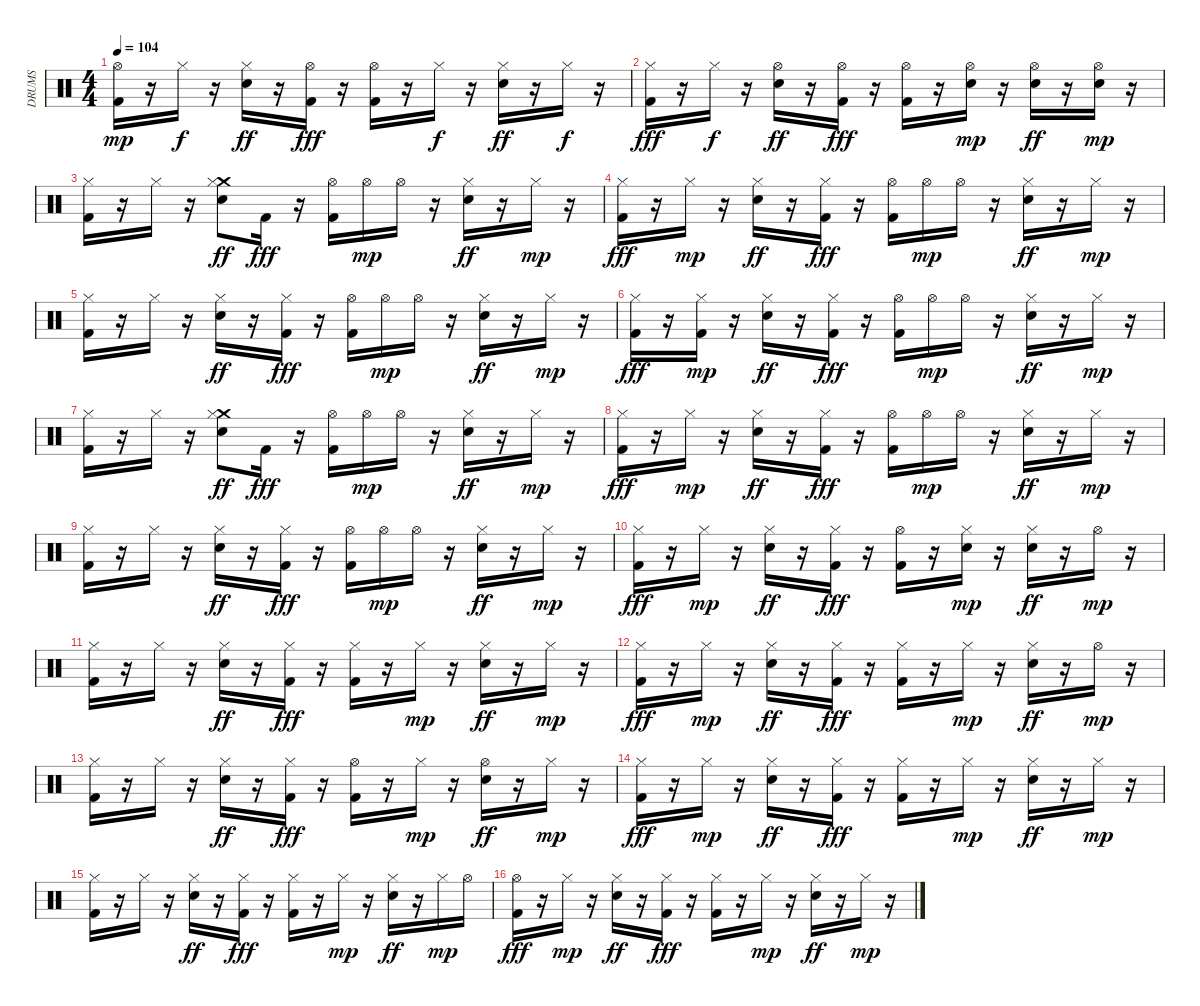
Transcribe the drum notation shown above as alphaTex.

\track ("DRUMS" "DRUMS") {instrument percussion}
\staff {score}
\articulation defaults
\ts (4 4)
\tempo 104
\clef neutral
\ks c
("Kick (hit) 2" "Hi-Hat (open)").16{dy mp} r.16 "Hi-Hat (closed)".16{dy f} r.16 ("Hi-Hat (closed)" "Snare (hit) 2").16{dy ff} r.16 ("Hi-Hat (open)" "Kick (hit) 2").16{dy fff} r.16 ("Hi-Hat (open)" "Kick (hit) 2").16 r.16 "Hi-Hat (closed)".16{dy f} r.16 ("Hi-Hat (closed)" "Snare (hit) 2").16{dy ff} r.16 "Hi-Hat (closed)".16{dy f} r.16 |
("Hi-Hat (closed)" "Kick (hit) 2").16{dy fff} r.16 "Hi-Hat (closed)".16{dy f} r.16 ("Hi-Hat (open)" "Snare (hit) 2").16{dy ff} r.16 ("Hi-Hat (open)" "Kick (hit) 2").16{dy fff} r.16 ("Hi-Hat (open)" "Kick (hit) 2").16 r.16 ("Snare (hit) 2" "Hi-Hat (open)").16{dy mp} r.16 ("Hi-Hat (open)" "Snare (hit) 2").16{dy ff} r.16 ("Snare (hit) 2" "Hi-Hat (open)").16{dy mp} r.16 |
("Kick (hit) 2" "Hi-Hat (closed)").16 r.16 "Hi-Hat (closed)".16 r.16 ("Crash medium (hit)" "Hi-Hat (closed)" "Snare (hit) 2").8{dy ff} "Kick (hit) 2".16{dy fff} r.16 ("Hi-Hat (open)" "Kick (hit) 2").16 "Hi-Hat (open)".16{dy mp} "Hi-Hat (open)".16 r.16 ("Hi-Hat (closed)" "Snare (hit) 2").16{dy ff} r.16 "Hi-Hat (closed)".16{dy mp} r.16 |
("Hi-Hat (closed)" "Kick (hit) 2").16{dy fff} r.16 "Hi-Hat (closed)".16{dy mp} r.16 ("Hi-Hat (closed)" "Snare (hit) 2").16{dy ff} r.16 ("Hi-Hat (closed)" "Kick (hit) 2").16{dy fff} r.16 ("Hi-Hat (open)" "Kick (hit) 2").16 "Hi-Hat (open)".16{dy mp} "Hi-Hat (open)".16 r.16 ("Hi-Hat (closed)" "Snare (hit) 2").16{dy ff} r.16 "Hi-Hat (closed)".16{dy mp} r.16 |
("Kick (hit) 2" "Hi-Hat (closed)").16 r.16 "Hi-Hat (closed)".16 r.16 ("Hi-Hat (closed)" "Snare (hit) 2").16{dy ff} r.16 ("Hi-Hat (closed)" "Kick (hit) 2").16{dy fff} r.16 ("Hi-Hat (open)" "Kick (hit) 2").16 "Hi-Hat (open)".16{dy mp} "Hi-Hat (open)".16 r.16 ("Hi-Hat (closed)" "Snare (hit) 2").16{dy ff} r.16 "Hi-Hat (closed)".16{dy mp} r.16 |
("Hi-Hat (closed)" "Kick (hit) 2").16{dy fff} r.16 ("Kick (hit) 2" "Hi-Hat (closed)").16{dy mp} r.16 ("Hi-Hat (closed)" "Snare (hit) 2").16{dy ff} r.16 ("Hi-Hat (closed)" "Kick (hit) 2").16{dy fff} r.16 ("Hi-Hat (open)" "Kick (hit) 2").16 "Hi-Hat (open)".16{dy mp} "Hi-Hat (open)".16 r.16 ("Hi-Hat (closed)" "Snare (hit) 2").16{dy ff} r.16 "Hi-Hat (closed)".16{dy mp} r.16 |
("Kick (hit) 2" "Hi-Hat (closed)").16 r.16 "Hi-Hat (closed)".16 r.16 ("Crash medium (hit)" "Hi-Hat (closed)" "Snare (hit) 2").8{dy ff} "Kick (hit) 2".16{dy fff} r.16 ("Hi-Hat (open)" "Kick (hit) 2").16 "Hi-Hat (open)".16{dy mp} "Hi-Hat (open)".16 r.16 ("Hi-Hat (closed)" "Snare (hit) 2").16{dy ff} r.16 "Hi-Hat (closed)".16{dy mp} r.16 |
("Hi-Hat (closed)" "Kick (hit) 2").16{dy fff} r.16 "Hi-Hat (closed)".16{dy mp} r.16 ("Hi-Hat (closed)" "Snare (hit) 2").16{dy ff} r.16 ("Hi-Hat (closed)" "Kick (hit) 2").16{dy fff} r.16 ("Hi-Hat (open)" "Kick (hit) 2").16 "Hi-Hat (open)".16{dy mp} "Hi-Hat (open)".16 r.16 ("Hi-Hat (closed)" "Snare (hit) 2").16{dy ff} r.16 "Hi-Hat (closed)".16{dy mp} r.16 |
("Kick (hit) 2" "Hi-Hat (closed)").16 r.16 "Hi-Hat (closed)".16 r.16 ("Hi-Hat (closed)" "Snare (hit) 2").16{dy ff} r.16 ("Hi-Hat (closed)" "Kick (hit) 2").16{dy fff} r.16 ("Hi-Hat (open)" "Kick (hit) 2").16 "Hi-Hat (open)".16{dy mp} "Hi-Hat (open)".16 r.16 ("Hi-Hat (closed)" "Snare (hit) 2").16{dy ff} r.16 "Hi-Hat (closed)".16{dy mp} r.16 |
("Hi-Hat (closed)" "Kick (hit) 2").16{dy fff} r.16 "Hi-Hat (closed)".16{dy mp} r.16 ("Hi-Hat (closed)" "Snare (hit) 2").16{dy ff} r.16 ("Hi-Hat (closed)" "Kick (hit) 2").16{dy fff} r.16 ("Hi-Hat (open)" "Kick (hit) 2").16 r.16 ("Snare (hit) 2" "Hi-Hat (closed)").16{dy mp} r.16 ("Hi-Hat (closed)" "Snare (hit) 2").16{dy ff} r.16 "Hi-Hat (open)".16{dy mp} r.16 |
("Kick (hit) 2" "Hi-Hat (closed)").16 r.16 "Hi-Hat (closed)".16 r.16 ("Hi-Hat (closed)" "Snare (hit) 2").16{dy ff} r.16 ("Hi-Hat (closed)" "Kick (hit) 2").16{dy fff} r.16 ("Hi-Hat (closed)" "Kick (hit) 2").16 r.16 "Hi-Hat (closed)".16{dy mp} r.16 ("Hi-Hat (closed)" "Snare (hit) 2").16{dy ff} r.16 "Hi-Hat (closed)".16{dy mp} r.16 |
("Hi-Hat (closed)" "Kick (hit) 2").16{dy fff} r.16 "Hi-Hat (closed)".16{dy mp} r.16 ("Hi-Hat (closed)" "Snare (hit) 2").16{dy ff} r.16 ("Hi-Hat (closed)" "Kick (hit) 2").16{dy fff} r.16 ("Hi-Hat (closed)" "Kick (hit) 2").16 r.16 "Hi-Hat (closed)".16{dy mp} r.16 ("Hi-Hat (closed)" "Snare (hit) 2").16{dy ff} r.16 "Hi-Hat (open)".16{dy mp} r.16 |
("Kick (hit) 2" "Hi-Hat (closed)").16 r.16 "Hi-Hat (closed)".16 r.16 ("Hi-Hat (closed)" "Snare (hit) 2").16{dy ff} r.16 ("Hi-Hat (closed)" "Kick (hit) 2").16{dy fff} r.16 ("Hi-Hat (open)" "Kick (hit) 2").16 r.16 "Hi-Hat (closed)".16{dy mp} r.16 ("Hi-Hat (open)" "Snare (hit) 2").16{dy ff} r.16 "Hi-Hat (closed)".16{dy mp} r.16 |
("Hi-Hat (closed)" "Kick (hit) 2").16{dy fff} r.16 "Hi-Hat (closed)".16{dy mp} r.16 ("Hi-Hat (closed)" "Snare (hit) 2").16{dy ff} r.16 ("Hi-Hat (closed)" "Kick (hit) 2").16{dy fff} r.16 ("Hi-Hat (closed)" "Kick (hit) 2").16 r.16 "Hi-Hat (closed)".16{dy mp} r.16 ("Hi-Hat (closed)" "Snare (hit) 2").16{dy ff} r.16 "Hi-Hat (closed)".16{dy mp} r.16 |
("Kick (hit) 2" "Hi-Hat (closed)").16 r.16 "Hi-Hat (closed)".16 r.16 ("Hi-Hat (closed)" "Snare (hit) 2").16{dy ff} r.16 ("Hi-Hat (closed)" "Kick (hit) 2").16{dy fff} r.16 ("Hi-Hat (closed)" "Kick (hit) 2").16 r.16 "Hi-Hat (closed)".16{dy mp} r.16 ("Hi-Hat (closed)" "Snare (hit) 2").16{dy ff} r.16 "Hi-Hat (closed)".16{dy mp} "Hi-Hat (open)".16 |
("Hi-Hat (open)" "Kick (hit) 2").16{dy fff} r.16 "Hi-Hat (closed)".16{dy mp} r.16 ("Hi-Hat (closed)" "Snare (hit) 2").16{dy ff} r.16 ("Hi-Hat (closed)" "Kick (hit) 2").16{dy fff} r.16 ("Hi-Hat (closed)" "Kick (hit) 2").16 r.16 "Hi-Hat (closed)".16{dy mp} r.16 ("Hi-Hat (closed)" "Snare (hit) 2").16{dy ff} r.16 "Hi-Hat (closed)".16{dy mp} r.16
